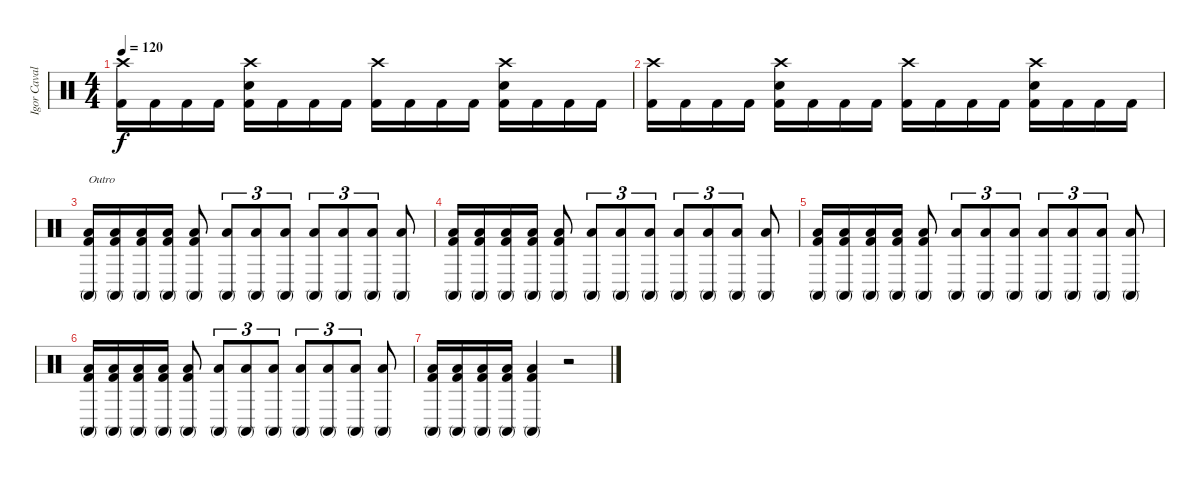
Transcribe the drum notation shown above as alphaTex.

\track ("Igor Cavalera" "Igor Caval") {instrument percussion}
\staff {score}
\articulation defaults
\ts (4 4)
\tempo 120
\clef neutral
\ks c
("Crash high (hit)" "Kick (hit) 2").16{dy f} "Kick (hit) 2".16 "Kick (hit) 2".16 "Kick (hit) 2".16 ("Crash high (hit)" "Electric Snare (hit)" "Kick (hit) 2").16 "Kick (hit) 2".16 "Kick (hit) 2".16 "Kick (hit) 2".16 ("Crash high (hit)" "Kick (hit) 2").16 "Kick (hit) 2".16 "Kick (hit) 2".16 "Kick (hit) 2".16 ("Crash high (hit)" "Electric Snare (hit)" "Kick (hit) 2").16 "Kick (hit) 2".16 "Kick (hit) 2".16 "Kick (hit) 2".16 |
("Crash high (hit)" "Kick (hit) 2").16 "Kick (hit) 2".16 "Kick (hit) 2".16 "Kick (hit) 2".16 ("Crash high (hit)" "Electric Snare (hit)" "Kick (hit) 2").16 "Kick (hit) 2".16 "Kick (hit) 2".16 "Kick (hit) 2".16 ("Crash high (hit)" "Kick (hit) 2").16 "Kick (hit) 2".16 "Kick (hit) 2".16 "Kick (hit) 2".16 ("Crash high (hit)" "Electric Snare (hit)" "Kick (hit) 2").16 "Kick (hit) 2".16 "Kick (hit) 2".16 "Kick (hit) 2".16 |
("Low Floor Tom (hit)" "Conga high (mute)" "Kick (hit) 2").16{txt "Outro" volume 16} ("Low Floor Tom (hit)" "Conga high (mute)" "Kick (hit) 2").16 ("Low Floor Tom (hit)" "Conga high (mute)" "Kick (hit) 2").16 ("Low Floor Tom (hit)" "Conga high (mute)" "Kick (hit) 2").16 ("Low Floor Tom (hit)" "Conga high (mute)" "Kick (hit) 2").8 ("Low Floor Tom (hit)" "Conga high (mute)").8{tu (3 2)} ("Low Floor Tom (hit)" "Conga high (mute)").8{tu (3 2)} ("Low Floor Tom (hit)" "Conga high (mute)").8{tu (3 2)} ("Low Floor Tom (hit)" "Conga high (mute)").8{tu (3 2)} ("Low Floor Tom (hit)" "Conga high (mute)").8{tu (3 2)} ("Low Floor Tom (hit)" "Conga high (mute)").8{tu (3 2)} ("Low Floor Tom (hit)" "Conga high (mute)").8 |
("Low Floor Tom (hit)" "Conga high (mute)" "Kick (hit) 2").16{volume 16} ("Low Floor Tom (hit)" "Conga high (mute)" "Kick (hit) 2").16 ("Low Floor Tom (hit)" "Conga high (mute)" "Kick (hit) 2").16 ("Low Floor Tom (hit)" "Conga high (mute)" "Kick (hit) 2").16 ("Low Floor Tom (hit)" "Conga high (mute)" "Kick (hit) 2").8 ("Low Floor Tom (hit)" "Conga high (mute)").8{tu (3 2)} ("Low Floor Tom (hit)" "Conga high (mute)").8{tu (3 2)} ("Low Floor Tom (hit)" "Conga high (mute)").8{tu (3 2)} ("Low Floor Tom (hit)" "Conga high (mute)").8{tu (3 2)} ("Low Floor Tom (hit)" "Conga high (mute)").8{tu (3 2)} ("Low Floor Tom (hit)" "Conga high (mute)").8{tu (3 2)} ("Low Floor Tom (hit)" "Conga high (mute)").8 |
("Low Floor Tom (hit)" "Conga high (mute)" "Kick (hit) 2").16{volume 16} ("Low Floor Tom (hit)" "Conga high (mute)" "Kick (hit) 2").16 ("Low Floor Tom (hit)" "Conga high (mute)" "Kick (hit) 2").16 ("Low Floor Tom (hit)" "Conga high (mute)" "Kick (hit) 2").16 ("Low Floor Tom (hit)" "Conga high (mute)" "Kick (hit) 2").8 ("Low Floor Tom (hit)" "Conga high (mute)").8{tu (3 2)} ("Low Floor Tom (hit)" "Conga high (mute)").8{tu (3 2)} ("Low Floor Tom (hit)" "Conga high (mute)").8{tu (3 2)} ("Low Floor Tom (hit)" "Conga high (mute)").8{tu (3 2)} ("Low Floor Tom (hit)" "Conga high (mute)").8{tu (3 2)} ("Low Floor Tom (hit)" "Conga high (mute)").8{tu (3 2)} ("Low Floor Tom (hit)" "Conga high (mute)").8 |
("Low Floor Tom (hit)" "Conga high (mute)" "Kick (hit) 2").16{volume 16} ("Low Floor Tom (hit)" "Conga high (mute)" "Kick (hit) 2").16 ("Low Floor Tom (hit)" "Conga high (mute)" "Kick (hit) 2").16 ("Low Floor Tom (hit)" "Conga high (mute)" "Kick (hit) 2").16 ("Low Floor Tom (hit)" "Conga high (mute)" "Kick (hit) 2").8 ("Low Floor Tom (hit)" "Conga high (mute)").8{tu (3 2)} ("Low Floor Tom (hit)" "Conga high (mute)").8{tu (3 2)} ("Low Floor Tom (hit)" "Conga high (mute)").8{tu (3 2)} ("Low Floor Tom (hit)" "Conga high (mute)").8{tu (3 2)} ("Low Floor Tom (hit)" "Conga high (mute)").8{tu (3 2)} ("Low Floor Tom (hit)" "Conga high (mute)").8{tu (3 2)} ("Low Floor Tom (hit)" "Conga high (mute)").8 |
("Low Floor Tom (hit)" "Conga high (mute)" "Kick (hit) 2").16{volume 16} ("Low Floor Tom (hit)" "Conga high (mute)" "Kick (hit) 2").16 ("Low Floor Tom (hit)" "Conga high (mute)" "Kick (hit) 2").16 ("Low Floor Tom (hit)" "Conga high (mute)" "Kick (hit) 2").16 ("Low Floor Tom (hit)" "Conga high (mute)" "Kick (hit) 2").4 r.2
